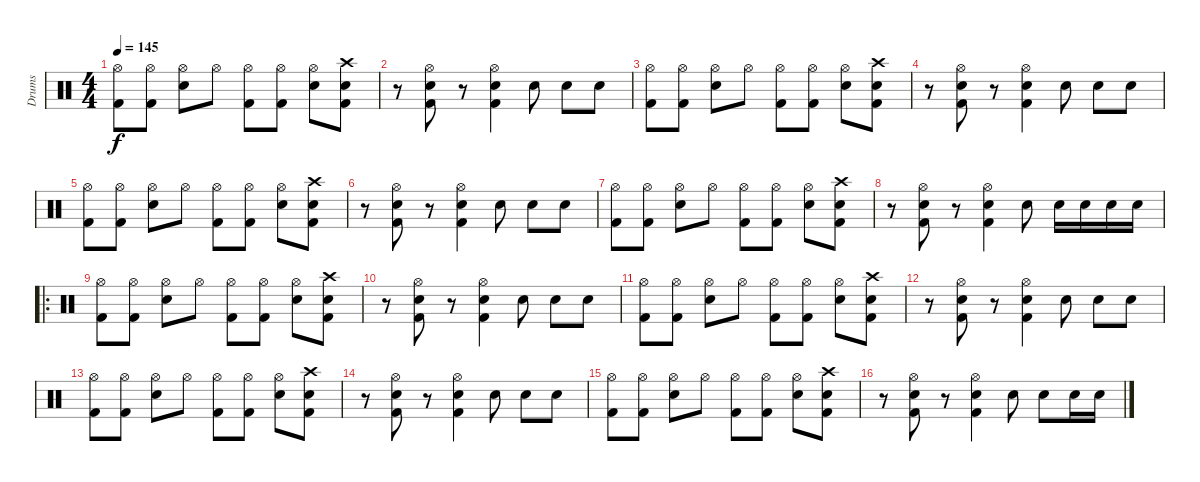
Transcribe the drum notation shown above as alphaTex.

\track ("Drums" "Drums") {instrument percussion}
\staff {score}
\articulation defaults
\ts (4 4)
\tempo 145
\clef neutral
\ks c
("Hi-Hat (open)" "Kick (hit) 2").8{dy f} ("Hi-Hat (open)" "Kick (hit) 2").8 ("Hi-Hat (open)" "Electric Snare (hit)").8 "Hi-Hat (open)".8 ("Hi-Hat (open)" "Kick (hit) 2").8 ("Hi-Hat (open)" "Kick (hit) 2").8 ("Hi-Hat (open)" "Electric Snare (hit)").8 ("Crash high (hit)" "Electric Snare (hit)" "Kick (hit) 2").8 |
r.8 ("Hi-Hat (open)" "Electric Snare (hit)" "Kick (hit) 2").8 r.8 ("Hi-Hat (open)" "Electric Snare (hit)" "Kick (hit) 2").4 "Electric Snare (hit)".8 "Electric Snare (hit)".8 "Electric Snare (hit)".8 |
("Hi-Hat (open)" "Kick (hit) 2").8 ("Hi-Hat (open)" "Kick (hit) 2").8 ("Hi-Hat (open)" "Electric Snare (hit)").8 "Hi-Hat (open)".8 ("Hi-Hat (open)" "Kick (hit) 2").8 ("Hi-Hat (open)" "Kick (hit) 2").8 ("Hi-Hat (open)" "Electric Snare (hit)").8 ("Crash high (hit)" "Electric Snare (hit)" "Kick (hit) 2").8 |
r.8 ("Hi-Hat (open)" "Electric Snare (hit)" "Kick (hit) 2").8 r.8 ("Hi-Hat (open)" "Electric Snare (hit)" "Kick (hit) 2").4 "Electric Snare (hit)".8 "Electric Snare (hit)".8 "Electric Snare (hit)".8 |
("Hi-Hat (open)" "Kick (hit) 2").8 ("Hi-Hat (open)" "Kick (hit) 2").8 ("Hi-Hat (open)" "Electric Snare (hit)").8 "Hi-Hat (open)".8 ("Hi-Hat (open)" "Kick (hit) 2").8 ("Hi-Hat (open)" "Kick (hit) 2").8 ("Hi-Hat (open)" "Electric Snare (hit)").8 ("Crash high (hit)" "Electric Snare (hit)" "Kick (hit) 2").8 |
r.8 ("Hi-Hat (open)" "Electric Snare (hit)" "Kick (hit) 2").8 r.8 ("Hi-Hat (open)" "Electric Snare (hit)" "Kick (hit) 2").4 "Electric Snare (hit)".8 "Electric Snare (hit)".8 "Electric Snare (hit)".8 |
("Hi-Hat (open)" "Kick (hit) 2").8 ("Hi-Hat (open)" "Kick (hit) 2").8 ("Hi-Hat (open)" "Electric Snare (hit)").8 "Hi-Hat (open)".8 ("Hi-Hat (open)" "Kick (hit) 2").8 ("Hi-Hat (open)" "Kick (hit) 2").8 ("Hi-Hat (open)" "Electric Snare (hit)").8 ("Crash high (hit)" "Electric Snare (hit)" "Kick (hit) 2").8 |
r.8 ("Hi-Hat (open)" "Electric Snare (hit)" "Kick (hit) 2").8 r.8 ("Hi-Hat (open)" "Electric Snare (hit)" "Kick (hit) 2").4 "Electric Snare (hit)".8 "Electric Snare (hit)".16 "Electric Snare (hit)".16 "Electric Snare (hit)".16 "Electric Snare (hit)".16 |
\ro
("Hi-Hat (open)" "Kick (hit) 2").8 ("Hi-Hat (open)" "Kick (hit) 2").8 ("Hi-Hat (open)" "Electric Snare (hit)").8 "Hi-Hat (open)".8 ("Hi-Hat (open)" "Kick (hit) 2").8 ("Hi-Hat (open)" "Kick (hit) 2").8 ("Hi-Hat (open)" "Electric Snare (hit)").8 ("Crash high (hit)" "Electric Snare (hit)" "Kick (hit) 2").8 |
r.8 ("Hi-Hat (open)" "Electric Snare (hit)" "Kick (hit) 2").8 r.8 ("Hi-Hat (open)" "Electric Snare (hit)" "Kick (hit) 2").4 "Electric Snare (hit)".8 "Electric Snare (hit)".8 "Electric Snare (hit)".8 |
("Hi-Hat (open)" "Kick (hit) 2").8 ("Hi-Hat (open)" "Kick (hit) 2").8 ("Hi-Hat (open)" "Electric Snare (hit)").8 "Hi-Hat (open)".8 ("Hi-Hat (open)" "Kick (hit) 2").8 ("Hi-Hat (open)" "Kick (hit) 2").8 ("Hi-Hat (open)" "Electric Snare (hit)").8 ("Crash high (hit)" "Electric Snare (hit)" "Kick (hit) 2").8 |
r.8 ("Hi-Hat (open)" "Electric Snare (hit)" "Kick (hit) 2").8 r.8 ("Hi-Hat (open)" "Electric Snare (hit)" "Kick (hit) 2").4 "Electric Snare (hit)".8 "Electric Snare (hit)".8 "Electric Snare (hit)".8 |
("Hi-Hat (open)" "Kick (hit) 2").8 ("Hi-Hat (open)" "Kick (hit) 2").8 ("Hi-Hat (open)" "Electric Snare (hit)").8 "Hi-Hat (open)".8 ("Hi-Hat (open)" "Kick (hit) 2").8 ("Hi-Hat (open)" "Kick (hit) 2").8 ("Hi-Hat (open)" "Electric Snare (hit)").8 ("Crash high (hit)" "Electric Snare (hit)" "Kick (hit) 2").8 |
r.8 ("Hi-Hat (open)" "Electric Snare (hit)" "Kick (hit) 2").8 r.8 ("Hi-Hat (open)" "Electric Snare (hit)" "Kick (hit) 2").4 "Electric Snare (hit)".8 "Electric Snare (hit)".8 "Electric Snare (hit)".8 |
("Hi-Hat (open)" "Kick (hit) 2").8 ("Hi-Hat (open)" "Kick (hit) 2").8 ("Hi-Hat (open)" "Electric Snare (hit)").8 "Hi-Hat (open)".8 ("Hi-Hat (open)" "Kick (hit) 2").8 ("Hi-Hat (open)" "Kick (hit) 2").8 ("Hi-Hat (open)" "Electric Snare (hit)").8 ("Crash high (hit)" "Electric Snare (hit)" "Kick (hit) 2").8 |
r.8 ("Hi-Hat (open)" "Electric Snare (hit)" "Kick (hit) 2").8 r.8 ("Hi-Hat (open)" "Electric Snare (hit)" "Kick (hit) 2").4 "Electric Snare (hit)".8 "Electric Snare (hit)".8 "Electric Snare (hit)".16 "Electric Snare (hit)".16
